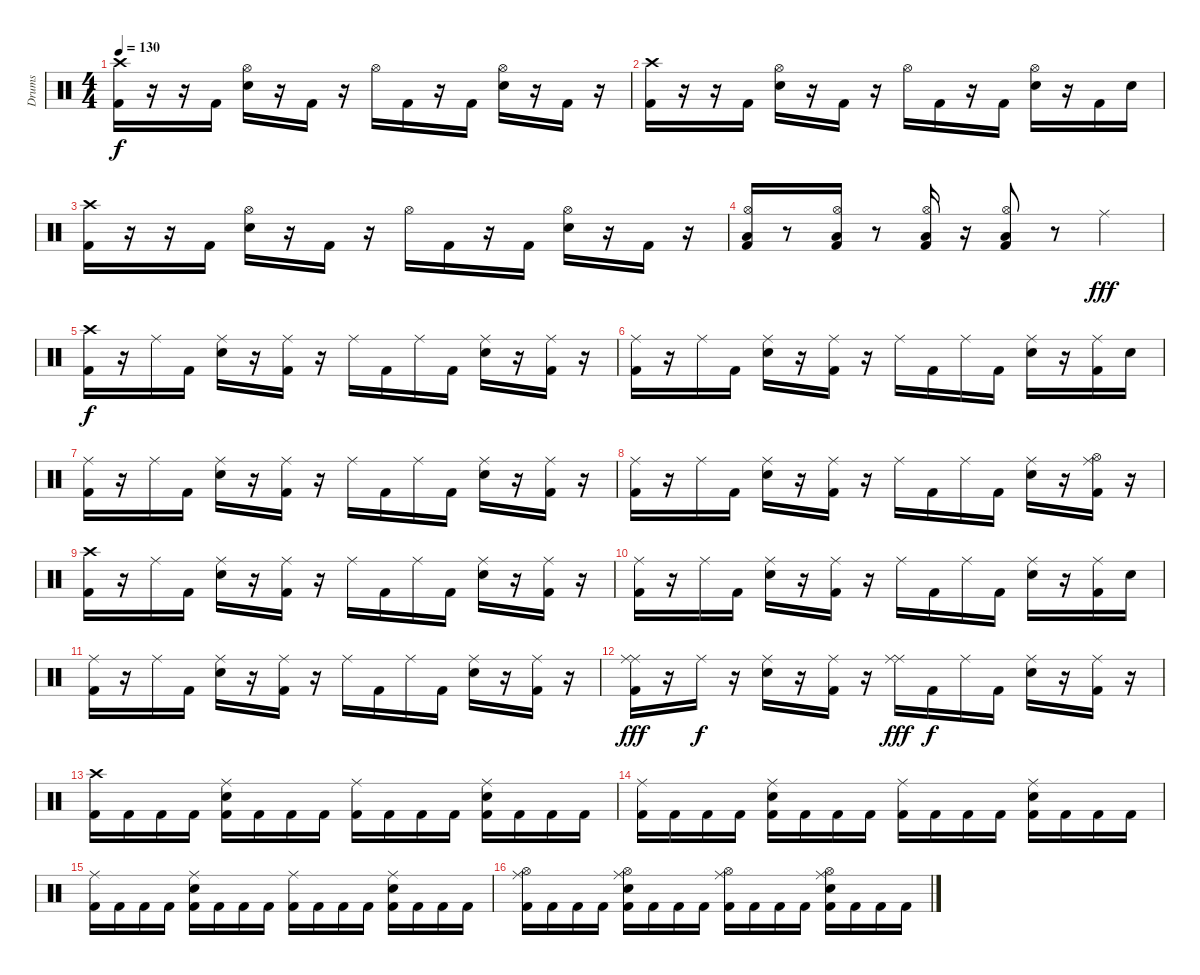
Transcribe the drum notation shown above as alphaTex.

\track ("Drums" "Drums") {instrument percussion}
\staff {score}
\articulation defaults
\ts (4 4)
\tempo 130
\clef neutral
\ks c
("Crash high (hit)" "Kick (hit) 2").16{dy f} r.16 r.16 "Kick (hit) 2".16 ("Hi-Hat (open)" "Electric Snare (hit)").16 r.16 "Kick (hit) 2".16 r.16 "Hi-Hat (open)".16 "Kick (hit) 2".16 r.16 "Kick (hit) 2".16 ("Hi-Hat (open)" "Electric Snare (hit)").16 r.16 "Kick (hit) 2".16 r.16 |
("Crash high (hit)" "Kick (hit) 2").16 r.16 r.16 "Kick (hit) 2".16 ("Hi-Hat (open)" "Electric Snare (hit)").16 r.16 "Kick (hit) 2".16 r.16 "Hi-Hat (open)".16 "Kick (hit) 2".16 r.16 "Kick (hit) 2".16 ("Hi-Hat (open)" "Electric Snare (hit)").16 r.16 "Kick (hit) 2".16 "Electric Snare (hit)".16 |
("Crash high (hit)" "Kick (hit) 2").16 r.16 r.16 "Kick (hit) 2".16 ("Hi-Hat (open)" "Electric Snare (hit)").16 r.16 "Kick (hit) 2".16 r.16 "Hi-Hat (open)".16 "Kick (hit) 2".16 r.16 "Kick (hit) 2".16 ("Hi-Hat (open)" "Electric Snare (hit)").16 r.16 "Kick (hit) 2".16 r.16 |
("Hi-Hat (open)" "Low Tom (hit)" "Kick (hit) 2").16 r.8 ("Hi-Hat (open)" "Low Tom (hit)" "Kick (hit) 2").16 r.8 ("Hi-Hat (open)" "Low Tom (hit)" "Kick (hit) 2").16 r.16 ("Hi-Hat (open)" "Low Tom (hit)" "Kick (hit) 2").8 r.8 "Ride (middle)".4{dy fff} |
("Crash high (hit)" "Kick (hit) 2").16{dy f} r.16 "Ride (middle)".16 "Kick (hit) 2".16 ("Ride (middle)" "Electric Snare (hit)").16 r.16 ("Ride (middle)" "Kick (hit) 2").16 r.16 "Ride (middle)".16 "Kick (hit) 2".16 "Ride (middle)".16 "Kick (hit) 2".16 ("Ride (middle)" "Electric Snare (hit)").16 r.16 ("Ride (middle)" "Kick (hit) 2").16 r.16 |
("Ride (middle)" "Kick (hit) 2").16 r.16 "Ride (middle)".16 "Kick (hit) 2".16 ("Ride (middle)" "Electric Snare (hit)").16 r.16 ("Ride (middle)" "Kick (hit) 2").16 r.16 "Ride (middle)".16 "Kick (hit) 2".16 "Ride (middle)".16 "Kick (hit) 2".16 ("Ride (middle)" "Electric Snare (hit)").16 r.16 ("Ride (middle)" "Kick (hit) 2").16 "Electric Snare (hit)".16 |
("Ride (middle)" "Kick (hit) 2").16 r.16 "Ride (middle)".16 "Kick (hit) 2".16 ("Ride (middle)" "Electric Snare (hit)").16 r.16 ("Ride (middle)" "Kick (hit) 2").16 r.16 "Ride (middle)".16 "Kick (hit) 2".16 "Ride (middle)".16 "Kick (hit) 2".16 ("Ride (middle)" "Electric Snare (hit)").16 r.16 ("Ride (middle)" "Kick (hit) 2").16 r.16 |
("Ride (middle)" "Kick (hit) 2").16 r.16 "Ride (middle)".16 "Kick (hit) 2".16 ("Ride (middle)" "Electric Snare (hit)").16 r.16 ("Ride (middle)" "Kick (hit) 2").16 r.16 "Ride (middle)".16 "Kick (hit) 2".16 "Ride (middle)".16 "Kick (hit) 2".16 ("Ride (middle)" "Electric Snare (hit)").16 r.16 ("Hi-Hat (open)" "Ride (middle)" "Kick (hit) 2").16 r.16 |
("Crash high (hit)" "Kick (hit) 2").16 r.16 "Ride (middle)".16 "Kick (hit) 2".16 ("Ride (middle)" "Electric Snare (hit)").16 r.16 ("Ride (middle)" "Kick (hit) 2").16 r.16 "Ride (middle)".16 "Kick (hit) 2".16 "Ride (middle)".16 "Kick (hit) 2".16 ("Ride (middle)" "Electric Snare (hit)").16 r.16 ("Ride (middle)" "Kick (hit) 2").16 r.16 |
("Ride (middle)" "Kick (hit) 2").16 r.16 "Ride (middle)".16 "Kick (hit) 2".16 ("Ride (middle)" "Electric Snare (hit)").16 r.16 ("Ride (middle)" "Kick (hit) 2").16 r.16 "Ride (middle)".16 "Kick (hit) 2".16 "Ride (middle)".16 "Kick (hit) 2".16 ("Ride (middle)" "Electric Snare (hit)").16 r.16 ("Ride (middle)" "Kick (hit) 2").16 "Electric Snare (hit)".16 |
("Ride (middle)" "Kick (hit) 2").16 r.16 "Ride (middle)".16 "Kick (hit) 2".16 ("Ride (middle)" "Electric Snare (hit)").16 r.16 ("Ride (middle)" "Kick (hit) 2").16 r.16 "Ride (middle)".16 "Kick (hit) 2".16 "Ride (middle)".16 "Kick (hit) 2".16 ("Ride (middle)" "Electric Snare (hit)").16 r.16 ("Ride (middle)" "Kick (hit) 2").16 r.16 |
("Ride (middle)" "Ride (middle)" "Kick (hit) 2").16{dy fff} r.16 "Ride (middle)".16{dy f} r.16 ("Ride (middle)" "Electric Snare (hit)").16 r.16 ("Ride (middle)" "Kick (hit) 2").16 r.16 ("Ride (middle)" "Ride (middle)").16{dy fff} "Kick (hit) 2".16{dy f} "Ride (middle)".16 "Kick (hit) 2".16 ("Ride (middle)" "Electric Snare (hit)").16 r.16 ("Ride (middle)" "Kick (hit) 2").16 r.16 |
("Crash high (hit)" "Kick (hit) 2").16 "Kick (hit) 2".16 "Kick (hit) 2".16 "Kick (hit) 2".16 ("Ride (middle)" "Electric Snare (hit)" "Kick (hit) 2").16 "Kick (hit) 2".16 "Kick (hit) 2".16 "Kick (hit) 2".16 ("Ride (middle)" "Kick (hit) 2").16 "Kick (hit) 2".16 "Kick (hit) 2".16 "Kick (hit) 2".16 ("Ride (middle)" "Electric Snare (hit)" "Kick (hit) 2").16 "Kick (hit) 2".16 "Kick (hit) 2".16 "Kick (hit) 2".16 |
("Ride (middle)" "Kick (hit) 2").16 "Kick (hit) 2".16 "Kick (hit) 2".16 "Kick (hit) 2".16 ("Ride (middle)" "Electric Snare (hit)" "Kick (hit) 2").16 "Kick (hit) 2".16 "Kick (hit) 2".16 "Kick (hit) 2".16 ("Ride (middle)" "Kick (hit) 2").16 "Kick (hit) 2".16 "Kick (hit) 2".16 "Kick (hit) 2".16 ("Ride (middle)" "Electric Snare (hit)" "Kick (hit) 2").16 "Kick (hit) 2".16 "Kick (hit) 2".16 "Kick (hit) 2".16 |
("Ride (middle)" "Kick (hit) 2").16 "Kick (hit) 2".16 "Kick (hit) 2".16 "Kick (hit) 2".16 ("Ride (middle)" "Electric Snare (hit)" "Kick (hit) 2").16 "Kick (hit) 2".16 "Kick (hit) 2".16 "Kick (hit) 2".16 ("Ride (middle)" "Kick (hit) 2").16 "Kick (hit) 2".16 "Kick (hit) 2".16 "Kick (hit) 2".16 ("Ride (middle)" "Electric Snare (hit)" "Kick (hit) 2").16 "Kick (hit) 2".16 "Kick (hit) 2".16 "Kick (hit) 2".16 |
("Hi-Hat (open)" "Ride (middle)" "Kick (hit) 2").16 "Kick (hit) 2".16 "Kick (hit) 2".16 "Kick (hit) 2".16 ("Hi-Hat (open)" "Ride (middle)" "Electric Snare (hit)" "Kick (hit) 2").16 "Kick (hit) 2".16 "Kick (hit) 2".16 "Kick (hit) 2".16 ("Hi-Hat (open)" "Ride (middle)" "Kick (hit) 2").16 "Kick (hit) 2".16 "Kick (hit) 2".16 "Kick (hit) 2".16 ("Hi-Hat (open)" "Ride (middle)" "Electric Snare (hit)" "Kick (hit) 2").16 "Kick (hit) 2".16 "Kick (hit) 2".16 "Kick (hit) 2".16
